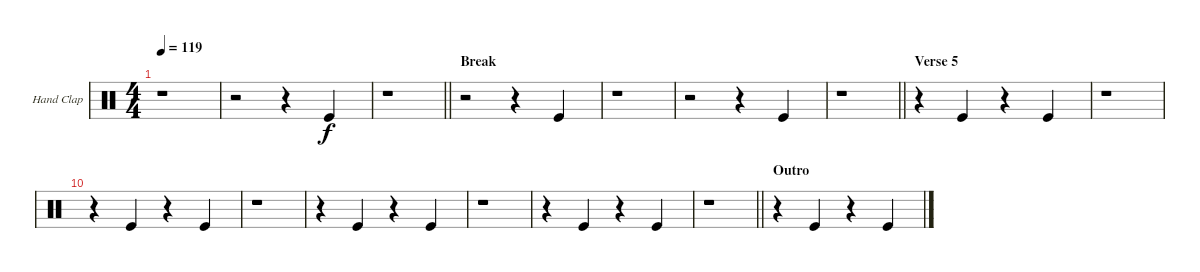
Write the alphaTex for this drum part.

\defaultSystemsLayout 4
\bracketExtendMode groupsimilarinstruments
\useSystemSignSeparator
\multiBarRest
\multiTrackTrackNamePolicy allsystems
\firstSystemTrackNameMode fullname
\firstSystemTrackNameOrientation horizontal
\otherSystemsTrackNameOrientation horizontal
\defaultBarNumberDisplay FirstOfSystem
\track ("Hand Clap" "H-Clap") {multiBarRest instrument percussion}
\staff {score}
\articulation defaults
\ts (4 4)
\tempo 119
\clef neutral
\ks aminor
r.1{dy f} |
r.2 r.4 "Kick (hit)".4 |
\barLineRight lightlight
r.1 |
\section ("" "Break")
r.2 r.4 "Kick (hit)".4 |
r.1 |
r.2 r.4 "Kick (hit)".4 |
\barLineRight lightlight
r.1 |
\section ("" "Verse 5")
r.4 "Kick (hit)".4 r.4 "Kick (hit)".4 |
r.1 |
r.4 "Kick (hit)".4 r.4 "Kick (hit)".4 |
r.1 |
r.4 "Kick (hit)".4 r.4 "Kick (hit)".4 |
r.1 |
r.4 "Kick (hit)".4 r.4 "Kick (hit)".4 |
\barLineRight lightlight
r.1 |
\section ("" "Outro")
r.4 "Kick (hit)".4 r.4 "Kick (hit)".4
